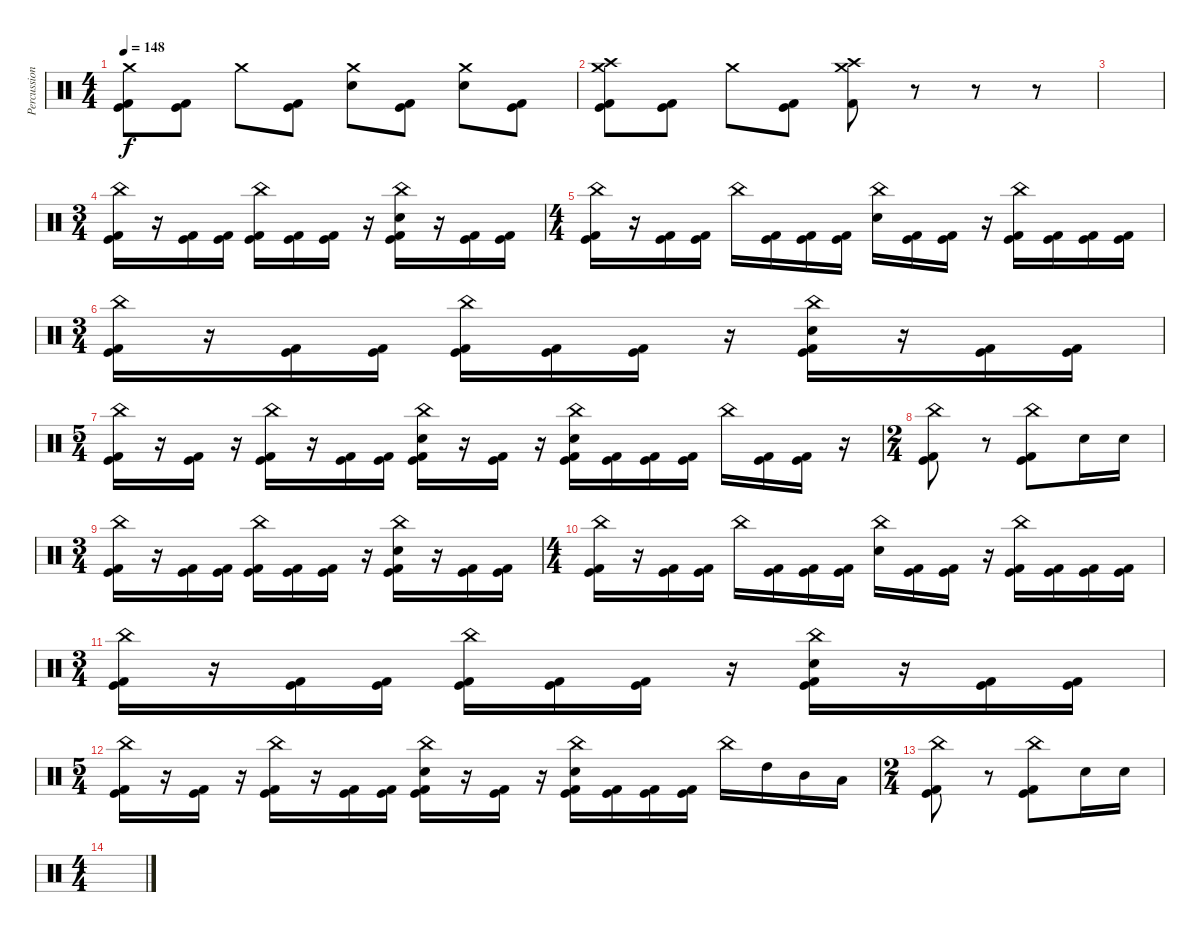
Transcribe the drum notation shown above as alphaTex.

\track ("Percussioni" "Percussion") {instrument percussion}
\staff {score}
\articulation defaults
\ts (4 4)
\tempo 148
\clef neutral
\ks c
("Crash medium (hit)" "Kick (hit)" "Kick (hit) 2").8{dy f} ("Kick (hit)" "Kick (hit) 2").8 "Crash medium (hit)".8 ("Kick (hit)" "Kick (hit) 2").8 ("Crash medium (hit)" "Snare (hit) 2").8 ("Kick (hit)" "Kick (hit) 2").8 ("Crash medium (hit)" "Snare (hit) 2").8 ("Kick (hit)" "Kick (hit) 2").8 |
("Crash high (hit)" "Crash medium (hit)" "Kick (hit)" "Kick (hit) 2").8 ("Kick (hit)" "Kick (hit) 2").8 "Crash medium (hit)".8 ("Kick (hit)" "Kick (hit) 2").8 ("Crash high (hit)" "Crash medium (hit)" "Kick (hit) 2").8 r.8 r.8 r.8 |
|
\ts (3 4)
("China (hit)" "Kick (hit)" "Kick (hit) 2").16 r.16 ("Kick (hit)" "Kick (hit) 2").16 ("Kick (hit)" "Kick (hit) 2").16 ("China (hit)" "Kick (hit)" "Kick (hit) 2").16 ("Kick (hit)" "Kick (hit) 2").16 ("Kick (hit)" "Kick (hit) 2").16 r.16 ("China (hit)" "Snare (hit) 2" "Kick (hit)" "Kick (hit) 2").16 r.16 ("Kick (hit)" "Kick (hit) 2").16 ("Kick (hit)" "Kick (hit) 2").16 |
\ts (4 4)
("China (hit)" "Kick (hit)" "Kick (hit) 2").16 r.16 ("Kick (hit)" "Kick (hit) 2").16 ("Kick (hit)" "Kick (hit) 2").16 "China (hit)".16 ("Kick (hit)" "Kick (hit) 2").16 ("Kick (hit)" "Kick (hit) 2").16 ("Kick (hit)" "Kick (hit) 2").16 ("China (hit)" "Snare (hit) 2").16 ("Kick (hit)" "Kick (hit) 2").16 ("Kick (hit)" "Kick (hit) 2").16 r.16 ("China (hit)" "Kick (hit)" "Kick (hit) 2").16 ("Kick (hit)" "Kick (hit) 2").16 ("Kick (hit)" "Kick (hit) 2").16 ("Kick (hit)" "Kick (hit) 2").16 |
\ts (3 4)
("China (hit)" "Kick (hit)" "Kick (hit) 2").16 r.16 ("Kick (hit)" "Kick (hit) 2").16 ("Kick (hit)" "Kick (hit) 2").16 ("China (hit)" "Kick (hit)" "Kick (hit) 2").16 ("Kick (hit)" "Kick (hit) 2").16 ("Kick (hit)" "Kick (hit) 2").16 r.16 ("China (hit)" "Snare (hit) 2" "Kick (hit)" "Kick (hit) 2").16 r.16 ("Kick (hit)" "Kick (hit) 2").16 ("Kick (hit)" "Kick (hit) 2").16 |
\ts (5 4)
("China (hit)" "Kick (hit)" "Kick (hit) 2").16 r.16 ("Kick (hit)" "Kick (hit) 2").16 r.16 ("China (hit)" "Kick (hit)" "Kick (hit) 2").16 r.16 ("Kick (hit)" "Kick (hit) 2").16 ("Kick (hit)" "Kick (hit) 2").16 ("China (hit)" "Snare (hit) 2" "Kick (hit)" "Kick (hit) 2").16 r.16 ("Kick (hit)" "Kick (hit) 2").16 r.16 ("China (hit)" "Snare (hit) 2" "Kick (hit)" "Kick (hit) 2").16 ("Kick (hit)" "Kick (hit) 2").16 ("Kick (hit)" "Kick (hit) 2").16 ("Kick (hit)" "Kick (hit) 2").16 "China (hit)".16 ("Kick (hit)" "Kick (hit) 2").16 ("Kick (hit)" "Kick (hit) 2").16 r.16 |
\ts (2 4)
("China (hit)" "Kick (hit)" "Kick (hit) 2").8 r.8 ("China (hit)" "Kick (hit)" "Kick (hit) 2").8 "Snare (hit) 2".16 "Snare (hit) 2".16 |
\ts (3 4)
("China (hit)" "Kick (hit)" "Kick (hit) 2").16 r.16 ("Kick (hit)" "Kick (hit) 2").16 ("Kick (hit)" "Kick (hit) 2").16 ("China (hit)" "Kick (hit)" "Kick (hit) 2").16 ("Kick (hit)" "Kick (hit) 2").16 ("Kick (hit)" "Kick (hit) 2").16 r.16 ("China (hit)" "Snare (hit) 2" "Kick (hit)" "Kick (hit) 2").16 r.16 ("Kick (hit)" "Kick (hit) 2").16 ("Kick (hit)" "Kick (hit) 2").16 |
\ts (4 4)
("China (hit)" "Kick (hit)" "Kick (hit) 2").16 r.16 ("Kick (hit)" "Kick (hit) 2").16 ("Kick (hit)" "Kick (hit) 2").16 "China (hit)".16 ("Kick (hit)" "Kick (hit) 2").16 ("Kick (hit)" "Kick (hit) 2").16 ("Kick (hit)" "Kick (hit) 2").16 ("China (hit)" "Snare (hit) 2").16 ("Kick (hit)" "Kick (hit) 2").16 ("Kick (hit)" "Kick (hit) 2").16 r.16 ("China (hit)" "Kick (hit)" "Kick (hit) 2").16 ("Kick (hit)" "Kick (hit) 2").16 ("Kick (hit)" "Kick (hit) 2").16 ("Kick (hit)" "Kick (hit) 2").16 |
\ts (3 4)
("China (hit)" "Kick (hit)" "Kick (hit) 2").16 r.16 ("Kick (hit)" "Kick (hit) 2").16 ("Kick (hit)" "Kick (hit) 2").16 ("China (hit)" "Kick (hit)" "Kick (hit) 2").16 ("Kick (hit)" "Kick (hit) 2").16 ("Kick (hit)" "Kick (hit) 2").16 r.16 ("China (hit)" "Snare (hit) 2" "Kick (hit)" "Kick (hit) 2").16 r.16 ("Kick (hit)" "Kick (hit) 2").16 ("Kick (hit)" "Kick (hit) 2").16 |
\ts (5 4)
("China (hit)" "Kick (hit)" "Kick (hit) 2").16 r.16 ("Kick (hit)" "Kick (hit) 2").16 r.16 ("China (hit)" "Kick (hit)" "Kick (hit) 2").16 r.16 ("Kick (hit)" "Kick (hit) 2").16 ("Kick (hit)" "Kick (hit) 2").16 ("China (hit)" "Snare (hit) 2" "Kick (hit)" "Kick (hit) 2").16 r.16 ("Kick (hit)" "Kick (hit) 2").16 r.16 ("China (hit)" "Snare (hit) 2" "Kick (hit)" "Kick (hit) 2").16 ("Kick (hit)" "Kick (hit) 2").16 ("Kick (hit)" "Kick (hit) 2").16 ("Kick (hit)" "Kick (hit) 2").16 "China (hit)".16 "High Tom (hit)".16 "Mid Tom (hit)".16 "Low Tom (hit)".16 |
\ts (2 4)
("China (hit)" "Kick (hit)" "Kick (hit) 2").8 r.8 ("China (hit)" "Kick (hit)" "Kick (hit) 2").8 "Snare (hit) 2".16 "Snare (hit) 2".16 |
\ts (4 4)
